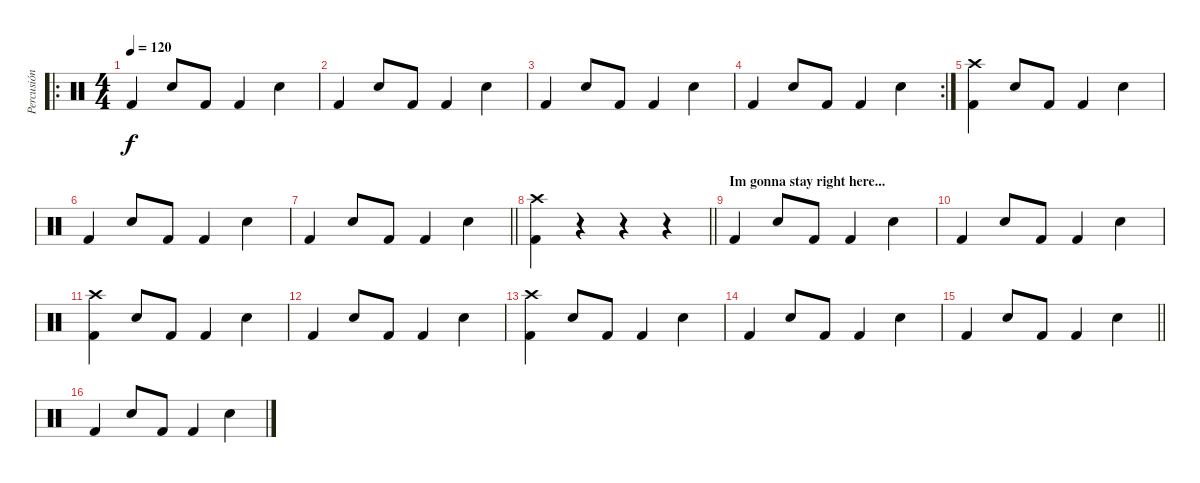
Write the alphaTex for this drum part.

\track ("Percusión" "Percusión") {instrument percussion}
\staff {score}
\articulation defaults
\ro
\ts (4 4)
\tempo 120
\clef neutral
\ks c "Kick (hit) 2".4{dy f} "Snare (hit) 2".8 "Kick (hit) 2".8 "Kick (hit) 2".4 "Snare (hit) 2".4
|
"Kick (hit) 2".4 "Snare (hit) 2".8 "Kick (hit) 2".8 "Kick (hit) 2".4 "Snare (hit) 2".4 |
"Kick (hit) 2".4 "Snare (hit) 2".8 "Kick (hit) 2".8 "Kick (hit) 2".4 "Snare (hit) 2".4 |
\rc 2 "Kick (hit) 2".4 "Snare (hit) 2".8 "Kick (hit) 2".8 "Kick (hit) 2".4 "Snare (hit) 2".4
|
("Crash high (hit)" "Kick (hit) 2").4 "Snare (hit) 2".8 "Kick (hit) 2".8 "Kick (hit) 2".4 "Snare (hit) 2".4 |
"Kick (hit) 2".4 "Snare (hit) 2".8 "Kick (hit) 2".8 "Kick (hit) 2".4 "Snare (hit) 2".4 |
\barLineRight lightlight "Kick (hit) 2".4 "Snare (hit) 2".8 "Kick (hit) 2".8 "Kick (hit) 2".4 "Snare (hit) 2".4
|
\barLineRight lightlight
("Crash high (hit)" "Kick (hit) 2").4 r.4 r.4 r.4 |
\section ("" "Im gonna stay right here...")
"Kick (hit) 2".4 "Snare (hit) 2".8 "Kick (hit) 2".8 "Kick (hit) 2".4 "Snare (hit) 2".4 |
"Kick (hit) 2".4 "Snare (hit) 2".8 "Kick (hit) 2".8 "Kick (hit) 2".4 "Snare (hit) 2".4 |
("Crash high (hit)" "Kick (hit) 2").4 "Snare (hit) 2".8 "Kick (hit) 2".8 "Kick (hit) 2".4 "Snare (hit) 2".4 |
"Kick (hit) 2".4 "Snare (hit) 2".8 "Kick (hit) 2".8 "Kick (hit) 2".4 "Snare (hit) 2".4 |
("Crash high (hit)" "Kick (hit) 2").4 "Snare (hit) 2".8 "Kick (hit) 2".8 "Kick (hit) 2".4 "Snare (hit) 2".4 |
"Kick (hit) 2".4 "Snare (hit) 2".8 "Kick (hit) 2".8 "Kick (hit) 2".4 "Snare (hit) 2".4 |
\barLineRight lightlight "Kick (hit) 2".4 "Snare (hit) 2".8 "Kick (hit) 2".8 "Kick (hit) 2".4 "Snare (hit) 2".4
|
"Kick (hit) 2".4 "Snare (hit) 2".8 "Kick (hit) 2".8 "Kick (hit) 2".4 "Snare (hit) 2".4
